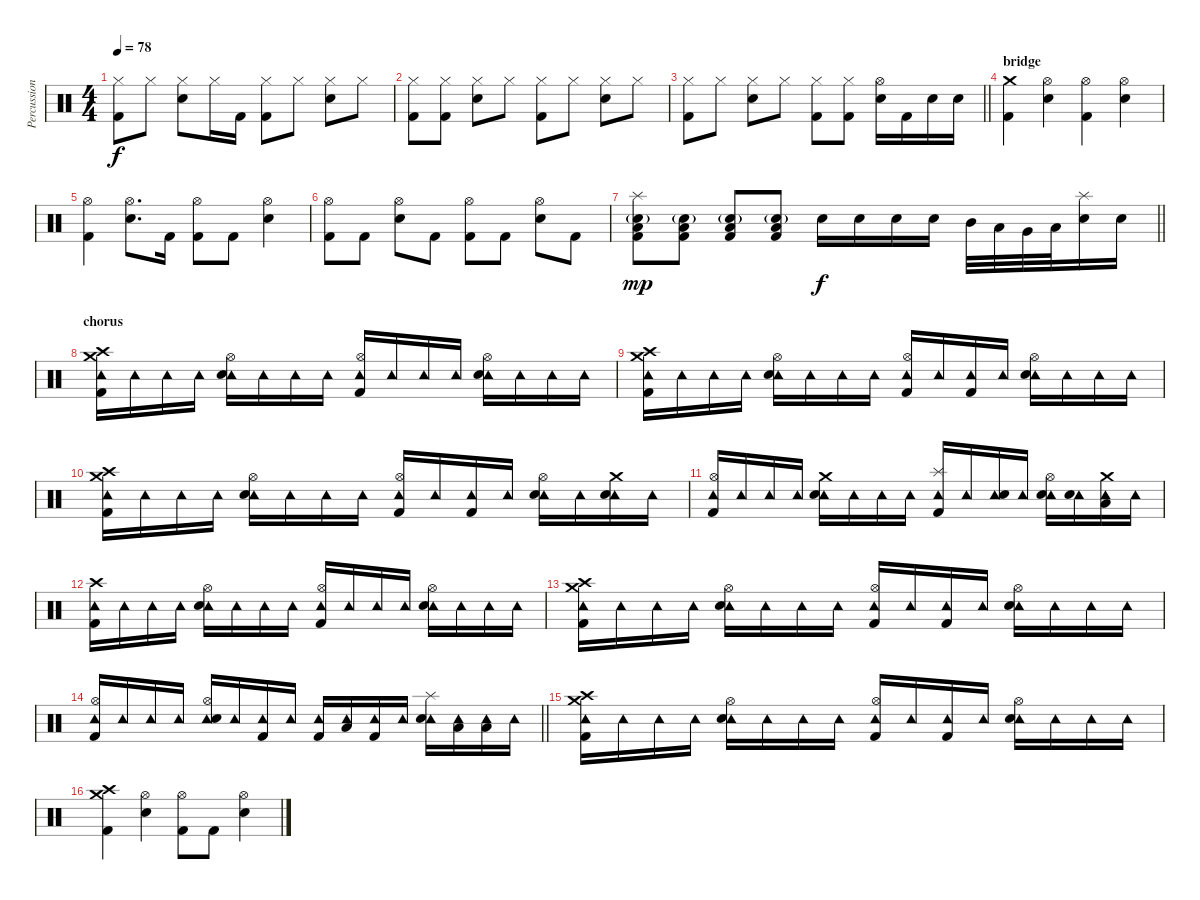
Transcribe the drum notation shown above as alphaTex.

\track ("Percussion" "Percussion") {instrument percussion}
\staff {score}
\articulation defaults
\ts (4 4)
\tempo 78
\clef neutral
\ks c
("Hi-Hat (closed)" "Kick (hit) 2").8{dy f} "Hi-Hat (closed)".8 ("Hi-Hat (closed)" "Electric Snare (hit)").8 "Hi-Hat (closed)".16 "Kick (hit) 2".16 ("Hi-Hat (closed)" "Kick (hit) 2").8 "Hi-Hat (closed)".8 ("Hi-Hat (closed)" "Electric Snare (hit)").8 "Hi-Hat (closed)".8 |
("Hi-Hat (closed)" "Kick (hit) 2").8 ("Hi-Hat (closed)" "Kick (hit) 2").8 ("Hi-Hat (closed)" "Electric Snare (hit)").8 "Hi-Hat (closed)".8 ("Hi-Hat (closed)" "Kick (hit) 2").8 "Hi-Hat (closed)".8 ("Hi-Hat (closed)" "Electric Snare (hit)").8 "Hi-Hat (closed)".8 |
\barLineRight lightlight
("Hi-Hat (closed)" "Kick (hit) 2").8 "Hi-Hat (closed)".8 ("Hi-Hat (closed)" "Electric Snare (hit)").8 "Hi-Hat (closed)".8 ("Hi-Hat (closed)" "Kick (hit) 2").8 ("Hi-Hat (closed)" "Kick (hit) 2").8 ("Hi-Hat (open)" "Electric Snare (hit)").16 "Kick (hit) 2".16 "Electric Snare (hit)".16 "Electric Snare (hit)".16 |
\section ("" "bridge")
("Crash medium (hit)" "Kick (hit) 2").4 ("Hi-Hat (open)" "Electric Snare (hit)").4 ("Hi-Hat (open)" "Kick (hit) 2").4 ("Hi-Hat (open)" "Electric Snare (hit)").4 |
("Hi-Hat (open)" "Kick (hit) 2").4 ("Hi-Hat (open)" "Electric Snare (hit)").8{d} "Kick (hit) 2".16 ("Hi-Hat (open)" "Kick (hit) 2").8 "Kick (hit) 2".8 ("Hi-Hat (open)" "Electric Snare (hit)").4 |
("Hi-Hat (open)" "Kick (hit) 2").8 "Kick (hit) 2".8 ("Hi-Hat (open)" "Electric Snare (hit)").8 "Kick (hit) 2".8 ("Hi-Hat (open)" "Kick (hit) 2").8 "Kick (hit) 2".8 ("Hi-Hat (open)" "Electric Snare (hit)").8 "Kick (hit) 2".8 |
\barLineRight lightlight
("Kick (hit) 2" "Low Floor Tom (hit)" "Snare (hit) 2"{g} "Splash (hit)").8{dy mp} ("Kick (hit) 2" "Low Floor Tom (hit)" "Snare (hit) 2"{g}).8 ("Kick (hit) 2" "Low Floor Tom (hit)" "Snare (hit) 2"{g}).8 ("Kick (hit) 2" "Low Floor Tom (hit)" "Snare (hit) 2"{g}).8 "Electric Snare (hit)".16{dy f} "Electric Snare (hit)".16 "Electric Snare (hit)".16 "Electric Snare (hit)".16 "Mid Tom (hit)".32 "Low Tom (hit)".32 "Very Low Tom (hit)".32 "Low Tom (hit)".32 ("Electric Snare (hit)" "Splash (hit)").16 "Electric Snare (hit)".16 |
\section ("" "chorus")
("Tambourine (hit)" "Crash high (hit)" "Crash medium (hit)" "Kick (hit) 2").16 "Tambourine (hit)".16 "Tambourine (hit)".16 "Tambourine (hit)".16 ("Tambourine (hit)" "Hi-Hat (open)" "Electric Snare (hit)").16 "Tambourine (hit)".16 "Tambourine (hit)".16 "Tambourine (hit)".16 ("Tambourine (hit)" "Hi-Hat (open)" "Kick (hit) 2").16 "Tambourine (hit)".16 "Tambourine (hit)".16 "Tambourine (hit)".16 ("Tambourine (hit)" "Hi-Hat (open)" "Electric Snare (hit)").16 "Tambourine (hit)".16 "Tambourine (hit)".16 "Tambourine (hit)".16 |
("Tambourine (hit)" "Crash high (hit)" "Crash medium (hit)" "Kick (hit) 2").16 "Tambourine (hit)".16 "Tambourine (hit)".16 "Tambourine (hit)".16 ("Tambourine (hit)" "Hi-Hat (open)" "Electric Snare (hit)").16 "Tambourine (hit)".16 "Tambourine (hit)".16 "Tambourine (hit)".16 ("Tambourine (hit)" "Hi-Hat (open)" "Kick (hit) 2").16 "Tambourine (hit)".16 ("Tambourine (hit)" "Kick (hit) 2").16 "Tambourine (hit)".16 ("Tambourine (hit)" "Hi-Hat (open)" "Electric Snare (hit)").16 "Tambourine (hit)".16 "Tambourine (hit)".16 "Tambourine (hit)".16 |
("Tambourine (hit)" "Crash high (hit)" "Crash medium (hit)" "Kick (hit) 2").16 "Tambourine (hit)".16 "Tambourine (hit)".16 "Tambourine (hit)".16 ("Tambourine (hit)" "Hi-Hat (open)" "Electric Snare (hit)").16 "Tambourine (hit)".16 "Tambourine (hit)".16 "Tambourine (hit)".16 ("Tambourine (hit)" "Hi-Hat (open)" "Kick (hit) 2").16 "Tambourine (hit)".16 ("Tambourine (hit)" "Kick (hit) 2").16 "Tambourine (hit)".16 ("Tambourine (hit)" "Hi-Hat (open)" "Electric Snare (hit)").16 "Tambourine (hit)".16 ("Tambourine (hit)" "Crash medium (hit)" "Electric Snare (hit)").16 "Tambourine (hit)".16 |
("Tambourine (hit)" "Hi-Hat (open)" "Kick (hit) 2").16 "Tambourine (hit)".16 "Tambourine (hit)".16 "Tambourine (hit)".16 ("Tambourine (hit)" "Crash medium (hit)" "Electric Snare (hit)").16 "Tambourine (hit)".16 "Tambourine (hit)".16 "Tambourine (hit)".16 ("Tambourine (hit)" "Splash (hit)" "Kick (hit) 2").16 "Tambourine (hit)".16 ("Tambourine (hit)" "Electric Snare (hit)").16 "Tambourine (hit)".16 ("Tambourine (hit)" "Hi-Hat (open)" "Electric Snare (hit)").16 ("Tambourine (hit)" "Electric Snare (hit)").16 ("Tambourine (hit)" "Crash medium (hit)" "Low Tom (hit)").16 "Tambourine (hit)".16 |
("Tambourine (hit)" "Crash high (hit)" "Kick (hit) 2").16 "Tambourine (hit)".16 "Tambourine (hit)".16 "Tambourine (hit)".16 ("Tambourine (hit)" "Hi-Hat (open)" "Electric Snare (hit)").16 "Tambourine (hit)".16 "Tambourine (hit)".16 "Tambourine (hit)".16 ("Tambourine (hit)" "Hi-Hat (open)" "Kick (hit) 2").16 "Tambourine (hit)".16 "Tambourine (hit)".16 "Tambourine (hit)".16 ("Tambourine (hit)" "Hi-Hat (open)" "Electric Snare (hit)").16 "Tambourine (hit)".16 "Tambourine (hit)".16 "Tambourine (hit)".16 |
("Tambourine (hit)" "Crash high (hit)" "Crash medium (hit)" "Kick (hit) 2").16 "Tambourine (hit)".16 "Tambourine (hit)".16 "Tambourine (hit)".16 ("Tambourine (hit)" "Hi-Hat (open)" "Electric Snare (hit)").16 "Tambourine (hit)".16 "Tambourine (hit)".16 "Tambourine (hit)".16 ("Tambourine (hit)" "Hi-Hat (open)" "Kick (hit) 2").16 "Tambourine (hit)".16 ("Tambourine (hit)" "Kick (hit) 2").16 "Tambourine (hit)".16 ("Tambourine (hit)" "Hi-Hat (open)" "Electric Snare (hit)").16 "Tambourine (hit)".16 "Tambourine (hit)".16 "Tambourine (hit)".16 |
\barLineRight lightlight
("Tambourine (hit)" "Hi-Hat (open)" "Kick (hit) 2").16 "Tambourine (hit)".16 "Tambourine (hit)".16 "Tambourine (hit)".16 ("Tambourine (hit)" "Hi-Hat (open)" "Electric Snare (hit)").16 "Tambourine (hit)".16 ("Tambourine (hit)" "Kick (hit) 2").16 "Tambourine (hit)".16 ("Tambourine (hit)" "Kick (hit) 2").16 ("Tambourine (hit)" "Low Tom (hit)").16 ("Tambourine (hit)" "Kick (hit) 2").16 "Tambourine (hit)".16 ("Tambourine (hit)" "Splash (hit)" "Electric Snare (hit)").16 ("Tambourine (hit)" "Low Tom (hit)").16 ("Tambourine (hit)" "Low Tom (hit)").16 "Tambourine (hit)".16 |
\section ("" "")
("Tambourine (hit)" "Crash high (hit)" "Crash medium (hit)" "Kick (hit) 2").16 "Tambourine (hit)".16 "Tambourine (hit)".16 "Tambourine (hit)".16 ("Tambourine (hit)" "Hi-Hat (open)" "Electric Snare (hit)").16 "Tambourine (hit)".16 "Tambourine (hit)".16 "Tambourine (hit)".16 ("Tambourine (hit)" "Hi-Hat (open)" "Kick (hit) 2").16 "Tambourine (hit)".16 ("Tambourine (hit)" "Kick (hit) 2").16 "Tambourine (hit)".16 ("Tambourine (hit)" "Hi-Hat (open)" "Electric Snare (hit)").16 "Tambourine (hit)".16 "Tambourine (hit)".16 "Tambourine (hit)".16 |
("Crash high (hit)" "Crash medium (hit)" "Kick (hit) 2").4 ("Hi-Hat (open)" "Electric Snare (hit)").4 ("Hi-Hat (open)" "Kick (hit) 2").8 "Kick (hit) 2".8 ("Hi-Hat (open)" "Electric Snare (hit)").4
